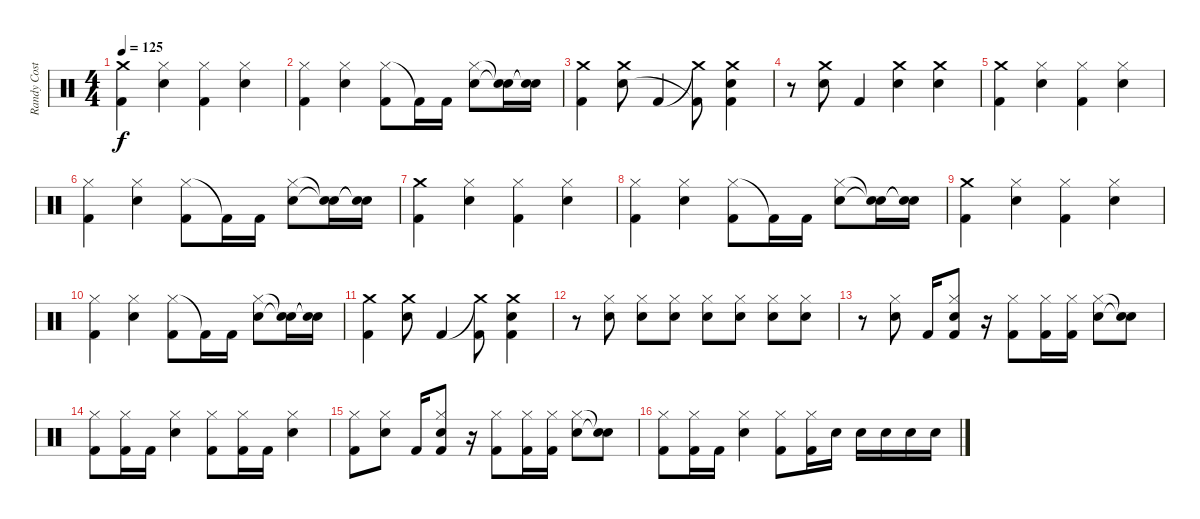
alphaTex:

\track ("Randy Costillo" "Randy Cost") {instrument percussion}
\staff {score}
\articulation defaults
\ts (4 4)
\tempo 125
\clef neutral
\ks c
("Crash medium (hit)" "Kick (hit) 2").4{dy f} ("Hi-Hat (closed)" "Snare (hit) 2").4 ("Hi-Hat (closed)" "Kick (hit) 2").4 ("Hi-Hat (closed)" "Snare (hit) 2").4 |
("Hi-Hat (closed)" "Kick (hit) 2").4 ("Hi-Hat (closed)" "Snare (hit) 2").4 ("Hi-Hat (closed)" "Kick (hit) 2").8 "Kick (hit) 2"{t}.16 "Kick (hit) 2".16 ("Hi-Hat (closed)" "Snare (hit) 2").8 ("Snare (hit)"{t} "Snare (hit)"{t}).16 ("Snare (hit)"{t} "Snare (hit)"{t}).16 |
("Crash medium (hit)" "Kick (hit) 2").4 ("Crash medium (hit)" "Snare (hit) 2").8 "Kick (hit) 2".4 ("Crash medium (hit)"{t} "Kick (hit) 2"{t}).8 ("Crash medium (hit)" "Snare (hit) 2" "Kick (hit) 2").4 |
r.8 ("Crash medium (hit)" "Snare (hit) 2").8 "Kick (hit) 2".4 ("Crash medium (hit)" "Snare (hit) 2").4 ("Crash medium (hit)" "Snare (hit) 2").4 |
("Crash medium (hit)" "Kick (hit) 2").4 ("Hi-Hat (closed)" "Snare (hit) 2").4 ("Hi-Hat (closed)" "Kick (hit) 2").4 ("Hi-Hat (closed)" "Snare (hit) 2").4 |
("Hi-Hat (closed)" "Kick (hit) 2").4 ("Hi-Hat (closed)" "Snare (hit) 2").4 ("Hi-Hat (closed)" "Kick (hit) 2").8 "Kick (hit) 2"{t}.16 "Kick (hit) 2".16 ("Hi-Hat (closed)" "Snare (hit) 2").8 ("Snare (hit)"{t} "Snare (hit)"{t}).16 ("Snare (hit)"{t} "Snare (hit)"{t}).16 |
("Crash medium (hit)" "Kick (hit) 2").4 ("Hi-Hat (closed)" "Snare (hit) 2").4 ("Hi-Hat (closed)" "Kick (hit) 2").4 ("Hi-Hat (closed)" "Snare (hit) 2").4 |
("Hi-Hat (closed)" "Kick (hit) 2").4 ("Hi-Hat (closed)" "Snare (hit) 2").4 ("Hi-Hat (closed)" "Kick (hit) 2").8 "Kick (hit) 2"{t}.16 "Kick (hit) 2".16 ("Hi-Hat (closed)" "Snare (hit) 2").8 ("Snare (hit)"{t} "Snare (hit)"{t}).16 ("Snare (hit)"{t} "Snare (hit)"{t}).16 |
("Crash medium (hit)" "Kick (hit) 2").4 ("Hi-Hat (closed)" "Snare (hit) 2").4 ("Hi-Hat (closed)" "Kick (hit) 2").4 ("Hi-Hat (closed)" "Snare (hit) 2").4 |
("Hi-Hat (closed)" "Kick (hit) 2").4 ("Hi-Hat (closed)" "Snare (hit) 2").4 ("Hi-Hat (closed)" "Kick (hit) 2").8 "Kick (hit) 2"{t}.16 "Kick (hit) 2".16 ("Hi-Hat (closed)" "Snare (hit) 2").8 ("Snare (hit)"{t} "Snare (hit)"{t}).16 ("Snare (hit)"{t} "Snare (hit)"{t}).16 |
("Crash medium (hit)" "Kick (hit) 2").4 ("Crash medium (hit)" "Snare (hit) 2").8 "Kick (hit) 2".4 ("Crash medium (hit)"{t} "Kick (hit) 2").8 ("Crash medium (hit)" "Snare (hit) 2" "Kick (hit) 2").4 |
r.8 ("Hi-Hat (closed)" "Snare (hit) 2").8 ("Hi-Hat (closed)" "Snare (hit) 2").8 ("Hi-Hat (closed)" "Snare (hit) 2").8 ("Hi-Hat (closed)" "Snare (hit) 2").8 ("Hi-Hat (closed)" "Snare (hit) 2").8 ("Hi-Hat (closed)" "Snare (hit) 2").8 ("Hi-Hat (closed)" "Snare (hit) 2").8 |
r.8 ("Hi-Hat (closed)" "Snare (hit) 2").8 "Kick (hit) 2".16 ("Hi-Hat (closed)" "Snare (hit) 2" "Kick (hit) 2").8 r.16 ("Hi-Hat (closed)" "Kick (hit) 2").8 ("Hi-Hat (closed)" "Kick (hit) 2").16 ("Hi-Hat (closed)" "Kick (hit) 2").16 ("Hi-Hat (closed)" "Snare (hit) 2").8 ("Snare (hit)"{t} "Snare (hit)"{t}).8 |
("Hi-Hat (closed)" "Kick (hit) 2").8 ("Hi-Hat (closed)" "Kick (hit) 2").16 "Kick (hit) 2".16 ("Hi-Hat (closed)" "Snare (hit) 2").4 ("Hi-Hat (closed)" "Kick (hit) 2").8 ("Hi-Hat (closed)" "Kick (hit) 2").16 "Kick (hit) 2".16 ("Hi-Hat (closed)" "Snare (hit) 2").4 |
("Hi-Hat (closed)" "Kick (hit) 2").8 ("Hi-Hat (closed)" "Snare (hit) 2").8 "Kick (hit) 2".16 ("Hi-Hat (closed)" "Snare (hit) 2" "Kick (hit) 2").8 r.16 ("Hi-Hat (closed)" "Kick (hit) 2").8 ("Hi-Hat (closed)" "Kick (hit) 2").16 ("Hi-Hat (closed)" "Kick (hit) 2").16 ("Hi-Hat (closed)" "Snare (hit) 2").8 ("Snare (hit)"{t} "Snare (hit)"{t}).8 |
("Hi-Hat (closed)" "Kick (hit) 2").8 ("Hi-Hat (closed)" "Kick (hit) 2").16 "Kick (hit) 2".16 ("Hi-Hat (closed)" "Snare (hit) 2").4 ("Hi-Hat (closed)" "Kick (hit) 2").8 ("Hi-Hat (closed)" "Kick (hit) 2").16 "Snare (hit) 2".16 "Snare (hit) 2".16 "Snare (hit) 2".16 "Snare (hit) 2".16 "Snare (hit) 2".16
